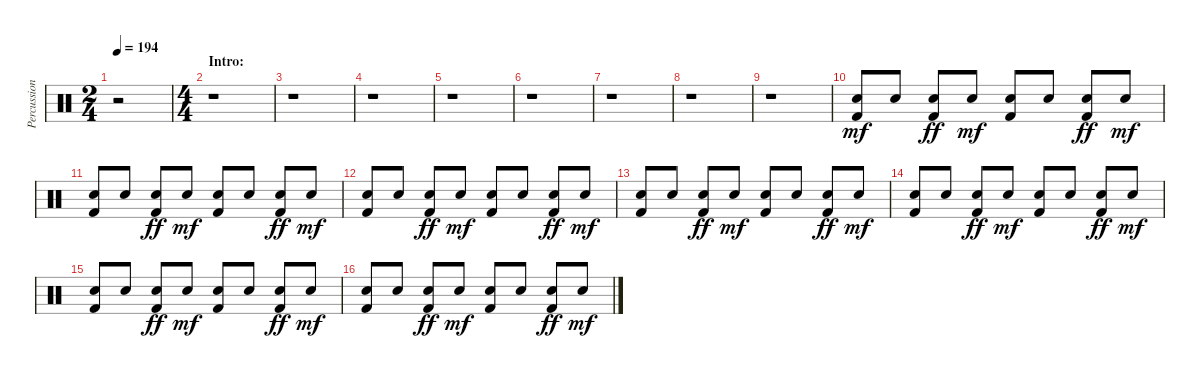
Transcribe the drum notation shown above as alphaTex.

\track ("Percussion" "Percussion") {instrument percussion}
\staff {score}
\articulation defaults
\ts (2 4)
\tempo 194
\clef neutral
\ks c
r.2{dy mf} |
\ts (4 4)
\section ("" "Intro:")
r.1 |
r.1 |
r.1 |
r.1 |
r.1 |
r.1 |
r.1 |
r.1 |
("Electric Snare (hit)" "Kick (hit) 2").8 "Electric Snare (hit)".8 ("Electric Snare (hit)" "Kick (hit) 2").8{dy ff} "Electric Snare (hit)".8{dy mf} ("Electric Snare (hit)" "Kick (hit) 2").8 "Electric Snare (hit)".8 ("Electric Snare (hit)" "Kick (hit) 2").8{dy ff} "Electric Snare (hit)".8{dy mf} |
("Electric Snare (hit)" "Kick (hit) 2").8 "Electric Snare (hit)".8 ("Electric Snare (hit)" "Kick (hit) 2").8{dy ff} "Electric Snare (hit)".8{dy mf} ("Electric Snare (hit)" "Kick (hit) 2").8 "Electric Snare (hit)".8 ("Electric Snare (hit)" "Kick (hit) 2").8{dy ff} "Electric Snare (hit)".8{dy mf} |
("Electric Snare (hit)" "Kick (hit) 2").8 "Electric Snare (hit)".8 ("Electric Snare (hit)" "Kick (hit) 2").8{dy ff} "Electric Snare (hit)".8{dy mf} ("Electric Snare (hit)" "Kick (hit) 2").8 "Electric Snare (hit)".8 ("Electric Snare (hit)" "Kick (hit) 2").8{dy ff} "Electric Snare (hit)".8{dy mf} |
("Electric Snare (hit)" "Kick (hit) 2").8 "Electric Snare (hit)".8 ("Electric Snare (hit)" "Kick (hit) 2").8{dy ff} "Electric Snare (hit)".8{dy mf} ("Electric Snare (hit)" "Kick (hit) 2").8 "Electric Snare (hit)".8 ("Electric Snare (hit)" "Kick (hit) 2").8{dy ff} "Electric Snare (hit)".8{dy mf} |
("Electric Snare (hit)" "Kick (hit) 2").8 "Electric Snare (hit)".8 ("Electric Snare (hit)" "Kick (hit) 2").8{dy ff} "Electric Snare (hit)".8{dy mf} ("Electric Snare (hit)" "Kick (hit) 2").8 "Electric Snare (hit)".8 ("Electric Snare (hit)" "Kick (hit) 2").8{dy ff} "Electric Snare (hit)".8{dy mf} |
("Electric Snare (hit)" "Kick (hit) 2").8 "Electric Snare (hit)".8 ("Electric Snare (hit)" "Kick (hit) 2").8{dy ff} "Electric Snare (hit)".8{dy mf} ("Electric Snare (hit)" "Kick (hit) 2").8 "Electric Snare (hit)".8 ("Electric Snare (hit)" "Kick (hit) 2").8{dy ff} "Electric Snare (hit)".8{dy mf} |
("Electric Snare (hit)" "Kick (hit) 2").8 "Electric Snare (hit)".8 ("Electric Snare (hit)" "Kick (hit) 2").8{dy ff} "Electric Snare (hit)".8{dy mf} ("Electric Snare (hit)" "Kick (hit) 2").8 "Electric Snare (hit)".8 ("Electric Snare (hit)" "Kick (hit) 2").8{dy ff} "Electric Snare (hit)".8{dy mf}
